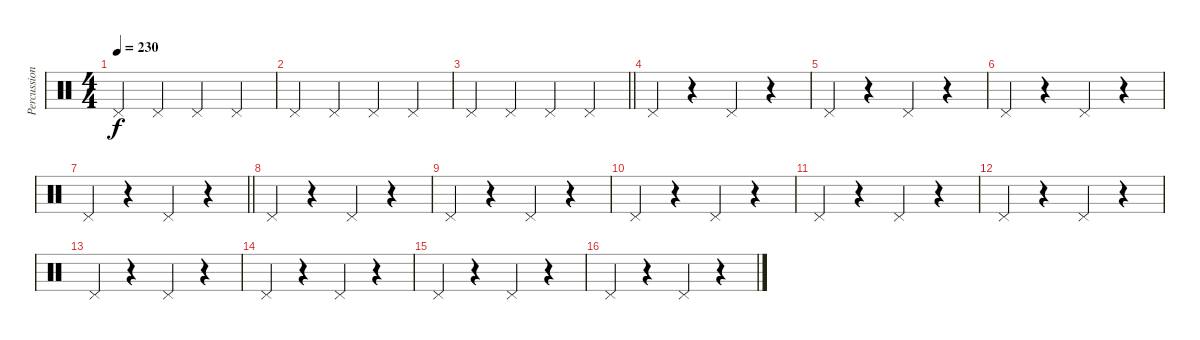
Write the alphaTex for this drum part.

\track ("Percussion" "Percussion") {instrument percussion}
\staff {score}
\articulation defaults
\ts (4 4)
\tempo 230
\clef neutral
\ks c "Pedal Hi-Hat (hit)".4{dy f} "Pedal Hi-Hat (hit)".4 "Pedal Hi-Hat (hit)".4 "Pedal Hi-Hat (hit)".4
|
"Pedal Hi-Hat (hit)".4 "Pedal Hi-Hat (hit)".4 "Pedal Hi-Hat (hit)".4 "Pedal Hi-Hat (hit)".4 |
\barLineRight lightlight "Pedal Hi-Hat (hit)".4 "Pedal Hi-Hat (hit)".4 "Pedal Hi-Hat (hit)".4 "Pedal Hi-Hat (hit)".4
|
\section ("" "")
"Pedal Hi-Hat (hit)".4 r.4 "Pedal Hi-Hat (hit)".4 r.4 |
"Pedal Hi-Hat (hit)".4 r.4 "Pedal Hi-Hat (hit)".4 r.4 |
"Pedal Hi-Hat (hit)".4 r.4 "Pedal Hi-Hat (hit)".4 r.4 |
\barLineRight lightlight "Pedal Hi-Hat (hit)".4
r.4 "Pedal Hi-Hat (hit)".4 r.4 |
\section ("" "")
"Pedal Hi-Hat (hit)".4 r.4 "Pedal Hi-Hat (hit)".4 r.4 |
"Pedal Hi-Hat (hit)".4 r.4 "Pedal Hi-Hat (hit)".4 r.4 |
"Pedal Hi-Hat (hit)".4 r.4 "Pedal Hi-Hat (hit)".4 r.4 |
"Pedal Hi-Hat (hit)".4 r.4 "Pedal Hi-Hat (hit)".4 r.4 |
"Pedal Hi-Hat (hit)".4 r.4 "Pedal Hi-Hat (hit)".4 r.4 |
"Pedal Hi-Hat (hit)".4 r.4 "Pedal Hi-Hat (hit)".4 r.4 |
"Pedal Hi-Hat (hit)".4 r.4 "Pedal Hi-Hat (hit)".4 r.4 |
"Pedal Hi-Hat (hit)".4 r.4 "Pedal Hi-Hat (hit)".4 r.4 |
"Pedal Hi-Hat (hit)".4 r.4 "Pedal Hi-Hat (hit)".4 r.4
